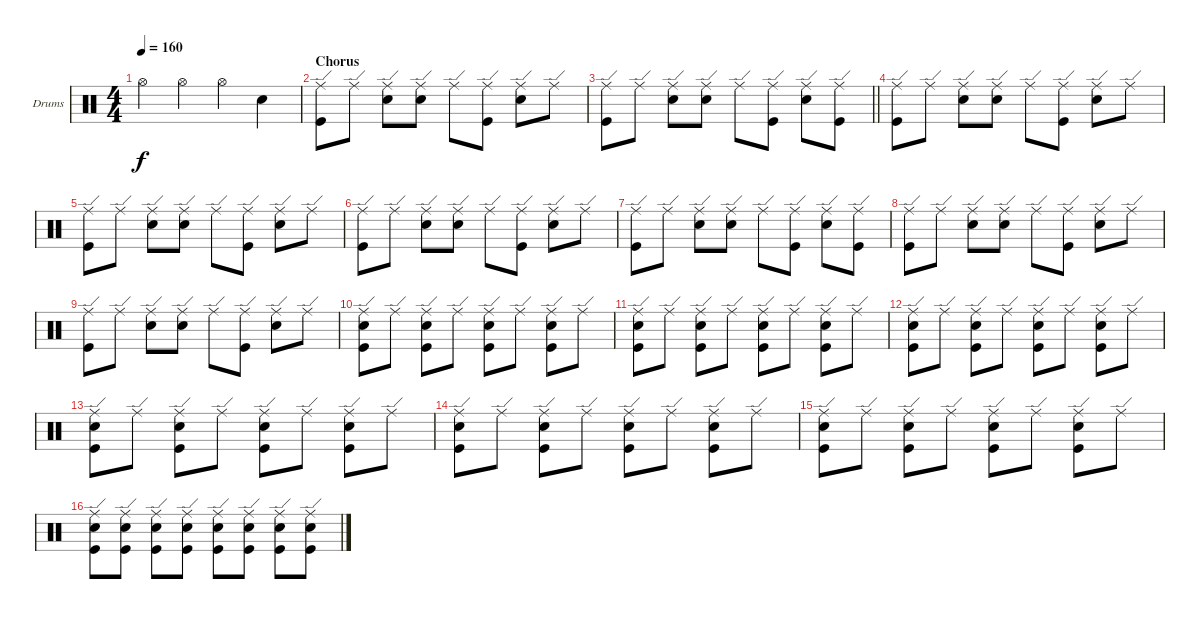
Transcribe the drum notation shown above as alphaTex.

\bracketExtendMode groupsimilarinstruments
\firstSystemTrackNameOrientation horizontal
\otherSystemsTrackNameOrientation horizontal
\track ("Fabrizio" "Drums") {instrument percussion}
\staff {score}
\articulation defaults
\ts (4 4)
\tempo 160
\clef neutral
\ks c "Hi-Hat (open)".4{dy f} "Hi-Hat (open)".4 "Hi-Hat (open)".4 "Snare (hit) 2".4
|
\section ("" "Chorus")
("Kick (hit)" "Ride (edge)").8 "Ride (edge)".8 ("Snare (hit) 2" "Ride (edge)").8 ("Snare (hit) 2" "Ride (edge)").8 "Ride (edge)".8 ("Kick (hit)" "Ride (edge)").8 ("Snare (hit) 2" "Ride (edge)").8 "Ride (edge)".8 |
\barLineRight lightlight
("Kick (hit)" "Ride (edge)").8 "Ride (edge)".8 ("Snare (hit) 2" "Ride (edge)").8 ("Snare (hit) 2" "Ride (edge)").8 "Ride (edge)".8 ("Kick (hit)" "Ride (edge)").8 ("Snare (hit) 2" "Ride (edge)").8 ("Ride (edge)" "Kick (hit)").8 |
("Kick (hit)" "Ride (edge)").8 "Ride (edge)".8 ("Snare (hit) 2" "Ride (edge)").8 ("Snare (hit) 2" "Ride (edge)").8 "Ride (edge)".8 ("Kick (hit)" "Ride (edge)").8 ("Snare (hit) 2" "Ride (edge)").8 "Ride (edge)".8 |
("Kick (hit)" "Ride (edge)").8 "Ride (edge)".8 ("Snare (hit) 2" "Ride (edge)").8 ("Snare (hit) 2" "Ride (edge)").8 "Ride (edge)".8 ("Kick (hit)" "Ride (edge)").8 ("Snare (hit) 2" "Ride (edge)").8 "Ride (edge)".8 |
("Kick (hit)" "Ride (edge)").8 "Ride (edge)".8 ("Snare (hit) 2" "Ride (edge)").8 ("Snare (hit) 2" "Ride (edge)").8 "Ride (edge)".8 ("Kick (hit)" "Ride (edge)").8 ("Snare (hit) 2" "Ride (edge)").8 "Ride (edge)".8 |
("Kick (hit)" "Ride (edge)").8 "Ride (edge)".8 ("Snare (hit) 2" "Ride (edge)").8 ("Snare (hit) 2" "Ride (edge)").8 "Ride (edge)".8 ("Kick (hit)" "Ride (edge)").8 ("Snare (hit) 2" "Ride (edge)").8 ("Ride (edge)" "Kick (hit)").8 |
("Kick (hit)" "Ride (edge)").8 "Ride (edge)".8 ("Snare (hit) 2" "Ride (edge)").8 ("Snare (hit) 2" "Ride (edge)").8 "Ride (edge)".8 ("Kick (hit)" "Ride (edge)").8 ("Snare (hit) 2" "Ride (edge)").8 "Ride (edge)".8 |
("Kick (hit)" "Ride (edge)").8 "Ride (edge)".8 ("Snare (hit) 2" "Ride (edge)").8 ("Snare (hit) 2" "Ride (edge)").8 "Ride (edge)".8 ("Kick (hit)" "Ride (edge)").8 ("Snare (hit) 2" "Ride (edge)").8 "Ride (edge)".8 |
("Kick (hit)" "Ride (edge)" "Snare (hit) 2").8 "Ride (edge)".8 ("Snare (hit) 2" "Ride (edge)" "Kick (hit)").8 "Ride (edge)".8 ("Ride (edge)" "Kick (hit)" "Snare (hit) 2").8 "Ride (edge)".8 ("Snare (hit) 2" "Ride (edge)" "Kick (hit)").8 "Ride (edge)".8 |
("Kick (hit)" "Ride (edge)" "Snare (hit) 2").8 "Ride (edge)".8 ("Snare (hit) 2" "Ride (edge)" "Kick (hit)").8 "Ride (edge)".8 ("Ride (edge)" "Kick (hit)" "Snare (hit) 2").8 "Ride (edge)".8 ("Snare (hit) 2" "Ride (edge)" "Kick (hit)").8 "Ride (edge)".8 |
("Kick (hit)" "Ride (edge)" "Snare (hit) 2").8 "Ride (edge)".8 ("Snare (hit) 2" "Ride (edge)" "Kick (hit)").8 "Ride (edge)".8 ("Ride (edge)" "Kick (hit)" "Snare (hit) 2").8 "Ride (edge)".8 ("Snare (hit) 2" "Ride (edge)" "Kick (hit)").8 "Ride (edge)".8 |
("Kick (hit)" "Ride (edge)" "Snare (hit) 2").8 "Ride (edge)".8 ("Snare (hit) 2" "Ride (edge)" "Kick (hit)").8 "Ride (edge)".8 ("Ride (edge)" "Kick (hit)" "Snare (hit) 2").8 "Ride (edge)".8 ("Snare (hit) 2" "Ride (edge)" "Kick (hit)").8 "Ride (edge)".8 |
("Kick (hit)" "Ride (edge)" "Snare (hit) 2").8 "Ride (edge)".8 ("Snare (hit) 2" "Ride (edge)" "Kick (hit)").8 "Ride (edge)".8 ("Ride (edge)" "Kick (hit)" "Snare (hit) 2").8 "Ride (edge)".8 ("Snare (hit) 2" "Ride (edge)" "Kick (hit)").8 "Ride (edge)".8 |
("Kick (hit)" "Ride (edge)" "Snare (hit) 2").8 "Ride (edge)".8 ("Snare (hit) 2" "Ride (edge)" "Kick (hit)").8 "Ride (edge)".8 ("Ride (edge)" "Kick (hit)" "Snare (hit) 2").8 "Ride (edge)".8 ("Snare (hit) 2" "Ride (edge)" "Kick (hit)").8 "Ride (edge)".8 |
("Kick (hit)" "Ride (edge)" "Snare (hit) 2").8 ("Ride (edge)" "Kick (hit)" "Snare (hit) 2").8 ("Snare (hit) 2" "Ride (edge)" "Kick (hit)").8 ("Ride (edge)" "Kick (hit)" "Snare (hit) 2").8 ("Ride (edge)" "Kick (hit)" "Snare (hit) 2").8 ("Ride (edge)" "Kick (hit)" "Snare (hit) 2").8 ("Snare (hit) 2" "Ride (edge)" "Kick (hit)").8 ("Ride (edge)" "Kick (hit)" "Snare (hit) 2").8
